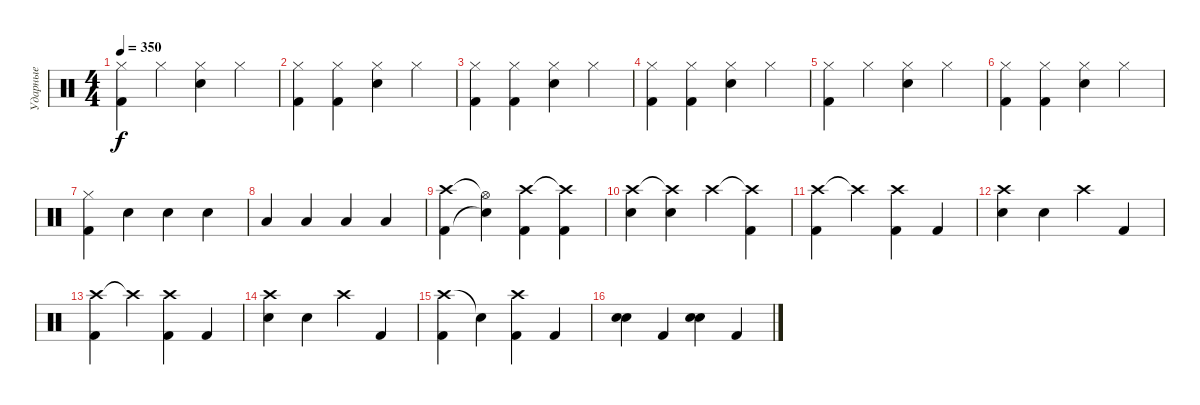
\track ("Ударные" "Ударные") {instrument percussion}
\staff {score}
\articulation defaults
\ts (4 4)
\tempo 350
\clef neutral
\ks c
("Hi-Hat (closed)" "Kick (hit) 2").4{dy f} "Hi-Hat (closed)".4 ("Hi-Hat (closed)" "Electric Snare (hit)").4 "Hi-Hat (closed)".4 |
("Hi-Hat (closed)" "Kick (hit) 2").4 ("Hi-Hat (closed)" "Kick (hit) 2").4 ("Hi-Hat (closed)" "Electric Snare (hit)").4 "Hi-Hat (closed)".4 |
("Hi-Hat (closed)" "Kick (hit) 2").4 ("Hi-Hat (closed)" "Kick (hit) 2").4 ("Hi-Hat (closed)" "Electric Snare (hit)").4 "Hi-Hat (closed)".4 |
("Hi-Hat (closed)" "Kick (hit) 2").4 ("Hi-Hat (closed)" "Kick (hit) 2").4 ("Hi-Hat (closed)" "Electric Snare (hit)").4 "Hi-Hat (closed)".4 |
("Hi-Hat (closed)" "Kick (hit) 2").4 "Hi-Hat (closed)".4 ("Hi-Hat (closed)" "Electric Snare (hit)").4 "Hi-Hat (closed)".4 |
("Hi-Hat (closed)" "Kick (hit) 2").4 ("Hi-Hat (closed)" "Kick (hit) 2").4 ("Hi-Hat (closed)" "Electric Snare (hit)").4 "Hi-Hat (closed)".4 |
("Hi-Hat (closed)" "Kick (hit) 2").4 "Electric Snare (hit)".4 "Electric Snare (hit)".4 "Electric Snare (hit)".4 |
"Low Tom (hit)".4 "Low Tom (hit)".4 "Low Floor Tom (hit)".4 "Low Floor Tom (hit)".4 |
("Crash high (hit)" "Kick (hit) 2").4 ("Hi-Hat (open)"{t} "Snare (hit)"{t}).4 ("Crash high (hit)" "Kick (hit) 2").4 ("Crash high (hit)"{t} "Kick (hit) 2").4 |
("Crash high (hit)" "Electric Snare (hit)").4 ("Crash high (hit)"{t} "Electric Snare (hit)").4 "Crash high (hit)".4 ("Crash high (hit)"{t} "Kick (hit) 2").4 |
("Crash high (hit)" "Kick (hit) 2").4 "Crash high (hit)"{t}.4 ("Crash high (hit)" "Kick (hit) 2").4 "Kick (hit) 2".4 |
("Crash high (hit)" "Electric Snare (hit)").4 "Electric Snare (hit)".4 "Crash high (hit)".4 "Kick (hit) 2".4 |
("Crash high (hit)" "Kick (hit) 2").4 "Crash high (hit)"{t}.4 ("Crash high (hit)" "Kick (hit) 2").4 "Kick (hit) 2".4 |
("Crash high (hit)" "Electric Snare (hit)").4 "Electric Snare (hit)".4 "Crash high (hit)".4 "Kick (hit) 2".4 |
("Crash high (hit)" "Kick (hit) 2").4 "Snare (hit)"{t}.4 ("Crash high (hit)" "Kick (hit) 2").4 "Kick (hit) 2".4 |
("Electric Snare (hit)" "Electric Snare (hit)").4 "Kick (hit) 2".4 ("Electric Snare (hit)" "Electric Snare (hit)").4 "Kick (hit) 2".4
